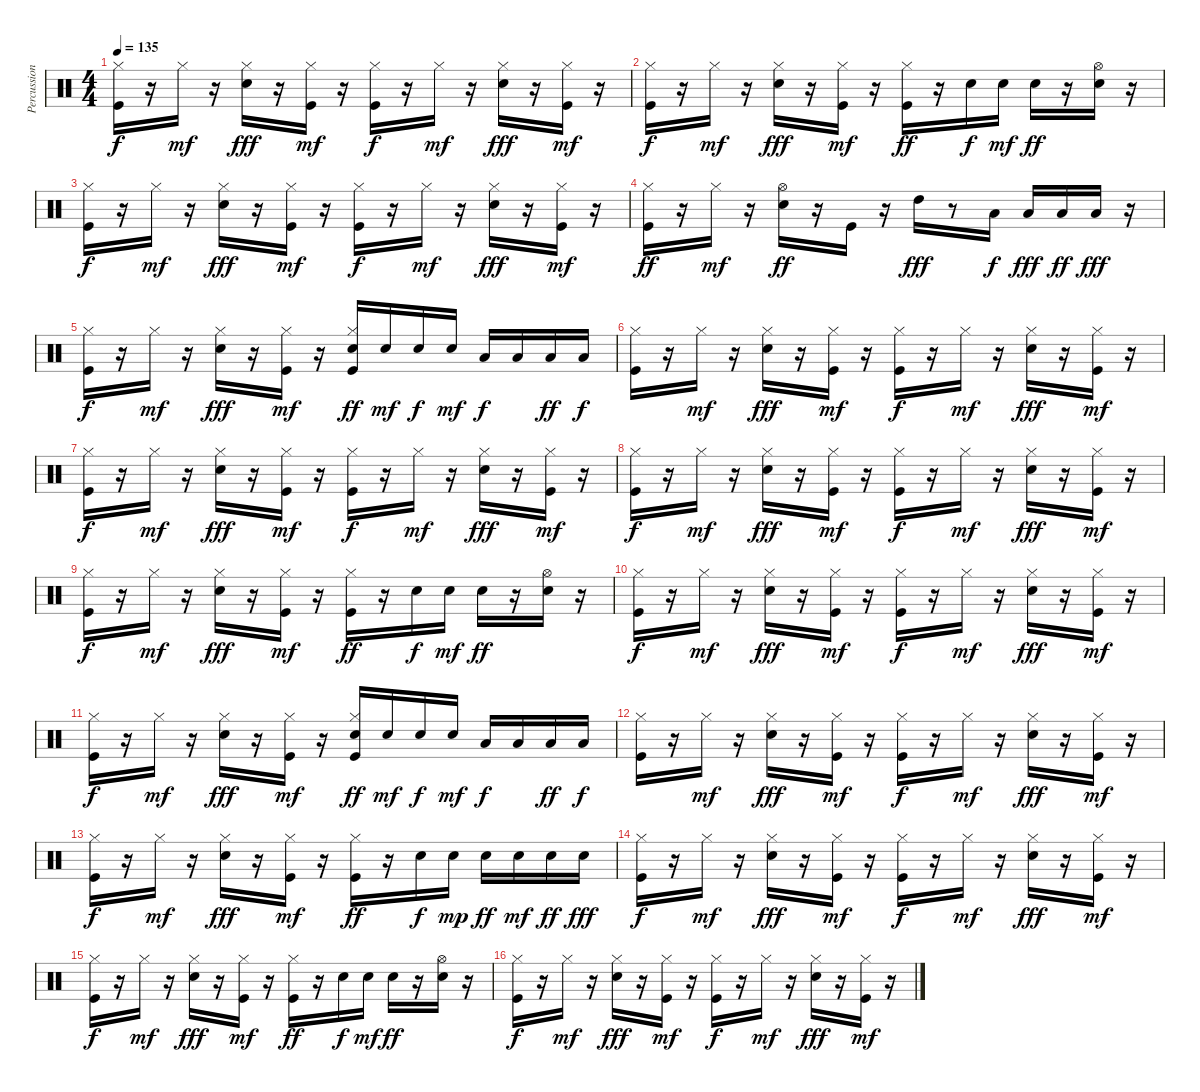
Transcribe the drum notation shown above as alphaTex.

\track ("Percussions" "Percussion") {instrument percussion}
\staff {score}
\articulation defaults
\ts (4 4)
\tempo 135
\clef neutral
\ks c
("Kick (hit)" "Hi-Hat (closed)").16{dy f} r.16 "Hi-Hat (closed)".16{dy mf} r.16 ("Snare (hit) 2" "Hi-Hat (closed)").16{dy fff} r.16 ("Kick (hit)" "Hi-Hat (closed)").16{dy mf} r.16 ("Kick (hit)" "Hi-Hat (closed)").16{dy f} r.16 "Hi-Hat (closed)".16{dy mf} r.16 ("Snare (hit) 2" "Hi-Hat (closed)").16{dy fff} r.16 ("Kick (hit)" "Hi-Hat (closed)").16{dy mf} r.16 |
("Kick (hit)" "Hi-Hat (closed)").16{dy f} r.16 "Hi-Hat (closed)".16{dy mf} r.16 ("Snare (hit) 2" "Hi-Hat (closed)").16{dy fff} r.16 ("Kick (hit)" "Hi-Hat (closed)").16{dy mf} r.16 ("Kick (hit)" "Hi-Hat (closed)").16{dy ff} r.16 "Snare (hit) 2".16{dy f} "Snare (hit) 2".16{dy mf} "Snare (hit) 2".16{dy ff} r.16 ("Snare (hit) 2" "Hi-Hat (open)").16 r.16 |
("Kick (hit)" "Hi-Hat (closed)").16{dy f} r.16 "Hi-Hat (closed)".16{dy mf} r.16 ("Snare (hit) 2" "Hi-Hat (closed)").16{dy fff} r.16 ("Kick (hit)" "Hi-Hat (closed)").16{dy mf} r.16 ("Kick (hit)" "Hi-Hat (closed)").16{dy f} r.16 "Hi-Hat (closed)".16{dy mf} r.16 ("Snare (hit) 2" "Hi-Hat (closed)").16{dy fff} r.16 ("Kick (hit)" "Hi-Hat (closed)").16{dy mf} r.16 |
("Kick (hit)" "Hi-Hat (closed)").16{dy ff} r.16 "Hi-Hat (closed)".16{dy mf} r.16 ("Snare (hit) 2" "Hi-Hat (open)").16{dy ff} r.16 "Kick (hit)".16 r.16 "High Tom (hit)".16{dy fff} r.8 "Low Tom (hit)".16{dy f} "Low Tom (hit)".16{dy fff} "Low Floor Tom (hit)".16{dy ff} "Low Floor Tom (hit)".16{dy fff} r.16 |
("Kick (hit)" "Hi-Hat (closed)").16{dy f} r.16 "Hi-Hat (closed)".16{dy mf} r.16 ("Snare (hit) 2" "Hi-Hat (closed)").16{dy fff} r.16 ("Kick (hit)" "Hi-Hat (closed)").16{dy mf} r.16 ("Kick (hit)" "Snare (hit) 2" "Hi-Hat (closed)").16{dy ff} "Snare (hit) 2".16{dy mf} "Snare (hit) 2".16{dy f} "Snare (hit) 2".16{dy mf} "Low Tom (hit)".16{dy f} "Low Tom (hit)".16 "Low Tom (hit)".16{dy ff} "Low Tom (hit)".16{dy f} |
("Kick (hit)" "Hi-Hat (closed)").16 r.16 "Hi-Hat (closed)".16{dy mf} r.16 ("Snare (hit) 2" "Hi-Hat (closed)").16{dy fff} r.16 ("Kick (hit)" "Hi-Hat (closed)").16{dy mf} r.16 ("Kick (hit)" "Hi-Hat (closed)").16{dy f} r.16 "Hi-Hat (closed)".16{dy mf} r.16 ("Snare (hit) 2" "Hi-Hat (closed)").16{dy fff} r.16 ("Kick (hit)" "Hi-Hat (closed)").16{dy mf} r.16 |
("Kick (hit)" "Hi-Hat (closed)").16{dy f} r.16 "Hi-Hat (closed)".16{dy mf} r.16 ("Snare (hit) 2" "Hi-Hat (closed)").16{dy fff} r.16 ("Kick (hit)" "Hi-Hat (closed)").16{dy mf} r.16 ("Kick (hit)" "Hi-Hat (closed)").16{dy f} r.16 "Hi-Hat (closed)".16{dy mf} r.16 ("Snare (hit) 2" "Hi-Hat (closed)").16{dy fff} r.16 ("Kick (hit)" "Hi-Hat (closed)").16{dy mf} r.16 |
("Kick (hit)" "Hi-Hat (closed)").16{dy f} r.16 "Hi-Hat (closed)".16{dy mf} r.16 ("Snare (hit) 2" "Hi-Hat (closed)").16{dy fff} r.16 ("Kick (hit)" "Hi-Hat (closed)").16{dy mf} r.16 ("Kick (hit)" "Hi-Hat (closed)").16{dy f} r.16 "Hi-Hat (closed)".16{dy mf} r.16 ("Snare (hit) 2" "Hi-Hat (closed)").16{dy fff} r.16 ("Kick (hit)" "Hi-Hat (closed)").16{dy mf} r.16 |
("Kick (hit)" "Hi-Hat (closed)").16{dy f} r.16 "Hi-Hat (closed)".16{dy mf} r.16 ("Snare (hit) 2" "Hi-Hat (closed)").16{dy fff} r.16 ("Kick (hit)" "Hi-Hat (closed)").16{dy mf} r.16 ("Kick (hit)" "Hi-Hat (closed)").16{dy ff} r.16 "Snare (hit) 2".16{dy f} "Snare (hit) 2".16{dy mf} "Snare (hit) 2".16{dy ff} r.16 ("Snare (hit) 2" "Hi-Hat (open)").16 r.16 |
("Kick (hit)" "Hi-Hat (closed)").16{dy f} r.16 "Hi-Hat (closed)".16{dy mf} r.16 ("Snare (hit) 2" "Hi-Hat (closed)").16{dy fff} r.16 ("Kick (hit)" "Hi-Hat (closed)").16{dy mf} r.16 ("Kick (hit)" "Hi-Hat (closed)").16{dy f} r.16 "Hi-Hat (closed)".16{dy mf} r.16 ("Snare (hit) 2" "Hi-Hat (closed)").16{dy fff} r.16 ("Kick (hit)" "Hi-Hat (closed)").16{dy mf} r.16 |
("Kick (hit)" "Hi-Hat (closed)").16{dy f} r.16 "Hi-Hat (closed)".16{dy mf} r.16 ("Snare (hit) 2" "Hi-Hat (closed)").16{dy fff} r.16 ("Kick (hit)" "Hi-Hat (closed)").16{dy mf} r.16 ("Kick (hit)" "Snare (hit) 2" "Hi-Hat (closed)").16{dy ff} "Snare (hit) 2".16{dy mf} "Snare (hit) 2".16{dy f} "Snare (hit) 2".16{dy mf} "Low Tom (hit)".16{dy f} "Low Tom (hit)".16 "Low Tom (hit)".16{dy ff} "Low Tom (hit)".16{dy f} |
("Kick (hit)" "Hi-Hat (closed)").16 r.16 "Hi-Hat (closed)".16{dy mf} r.16 ("Snare (hit) 2" "Hi-Hat (closed)").16{dy fff} r.16 ("Kick (hit)" "Hi-Hat (closed)").16{dy mf} r.16 ("Kick (hit)" "Hi-Hat (closed)").16{dy f} r.16 "Hi-Hat (closed)".16{dy mf} r.16 ("Snare (hit) 2" "Hi-Hat (closed)").16{dy fff} r.16 ("Kick (hit)" "Hi-Hat (closed)").16{dy mf} r.16 |
("Kick (hit)" "Hi-Hat (closed)").16{dy f} r.16 "Hi-Hat (closed)".16{dy mf} r.16 ("Snare (hit) 2" "Hi-Hat (closed)").16{dy fff} r.16 ("Kick (hit)" "Hi-Hat (closed)").16{dy mf} r.16 ("Kick (hit)" "Hi-Hat (closed)").16{dy ff} r.16 "Snare (hit) 2".16{dy f} "Snare (hit) 2".16{dy mp} "Snare (hit) 2".16{dy ff} "Snare (hit) 2".16{dy mf} "Snare (hit) 2".16{dy ff} "Snare (hit) 2".16{dy fff} |
("Kick (hit)" "Hi-Hat (closed)").16{dy f} r.16 "Hi-Hat (closed)".16{dy mf} r.16 ("Snare (hit) 2" "Hi-Hat (closed)").16{dy fff} r.16 ("Kick (hit)" "Hi-Hat (closed)").16{dy mf} r.16 ("Kick (hit)" "Hi-Hat (closed)").16{dy f} r.16 "Hi-Hat (closed)".16{dy mf} r.16 ("Snare (hit) 2" "Hi-Hat (closed)").16{dy fff} r.16 ("Kick (hit)" "Hi-Hat (closed)").16{dy mf} r.16 |
("Kick (hit)" "Hi-Hat (closed)").16{dy f} r.16 "Hi-Hat (closed)".16{dy mf} r.16 ("Snare (hit) 2" "Hi-Hat (closed)").16{dy fff} r.16 ("Kick (hit)" "Hi-Hat (closed)").16{dy mf} r.16 ("Kick (hit)" "Hi-Hat (closed)").16{dy ff} r.16 "Snare (hit) 2".16{dy f} "Snare (hit) 2".16{dy mf} "Snare (hit) 2".16{dy ff} r.16 ("Snare (hit) 2" "Hi-Hat (open)").16 r.16 |
("Kick (hit)" "Hi-Hat (closed)").16{dy f} r.16 "Hi-Hat (closed)".16{dy mf} r.16 ("Snare (hit) 2" "Hi-Hat (closed)").16{dy fff} r.16 ("Kick (hit)" "Hi-Hat (closed)").16{dy mf} r.16 ("Kick (hit)" "Hi-Hat (closed)").16{dy f} r.16 "Hi-Hat (closed)".16{dy mf} r.16 ("Snare (hit) 2" "Hi-Hat (closed)").16{dy fff} r.16 ("Kick (hit)" "Hi-Hat (closed)").16{dy mf} r.16
